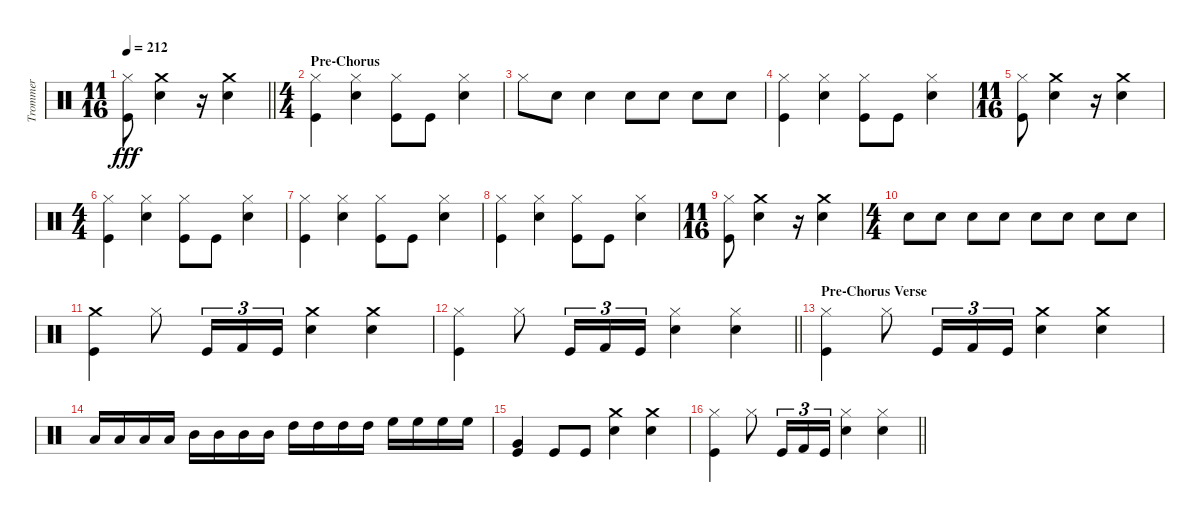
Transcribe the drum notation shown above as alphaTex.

\track ("Trommer" "Trommer") {instrument percussion}
\staff {score}
\articulation defaults
\ts (11 16)
\tempo 212
\clef neutral
\barLineRight lightlight
\ks c
("Kick (hit)" "Hi-Hat (closed)").8{dy fff} ("Crash medium (hit)" "Snare (hit) 2").4 r.16 ("Crash medium (hit)" "Snare (hit) 2").4 |
\ts (4 4)
\section ("" "Pre-Chorus")
("Kick (hit)" "Hi-Hat (closed)").4 ("Hi-Hat (closed)" "Snare (hit) 2").4 ("Kick (hit)" "Hi-Hat (closed)").8 "Kick (hit)".8 ("Snare (hit) 2" "Hi-Hat (closed)").4 |
"Hi-Hat (closed)".8 "Snare (hit) 2".8 "Snare (hit) 2".4 "Snare (hit) 2".8 "Snare (hit) 2".8 "Snare (hit) 2".8 "Snare (hit) 2".8 |
("Hi-Hat (closed)" "Kick (hit)").4 ("Snare (hit) 2" "Hi-Hat (closed)").4 ("Kick (hit)" "Hi-Hat (closed)").8 "Kick (hit)".8 ("Snare (hit) 2" "Hi-Hat (closed)").4 |
\ts (11 16)
("Kick (hit)" "Hi-Hat (closed)").8 ("Snare (hit) 2" "Crash medium (hit)").4 r.16 ("Crash medium (hit)" "Snare (hit) 2").4 |
\ts (4 4)
("Hi-Hat (closed)" "Kick (hit)").4 ("Snare (hit) 2" "Hi-Hat (closed)").4 ("Kick (hit)" "Hi-Hat (closed)").8 "Kick (hit)".8 ("Snare (hit) 2" "Hi-Hat (closed)").4 |
("Kick (hit)" "Hi-Hat (closed)").4 ("Snare (hit) 2" "Hi-Hat (closed)").4 ("Hi-Hat (closed)" "Kick (hit)").8 "Kick (hit)".8 ("Snare (hit) 2" "Hi-Hat (closed)").4 |
("Kick (hit)" "Hi-Hat (closed)").4 ("Snare (hit) 2" "Hi-Hat (closed)").4 ("Kick (hit)" "Hi-Hat (closed)").8 "Kick (hit)".8 ("Hi-Hat (closed)" "Snare (hit) 2").4 |
\ts (11 16)
("Kick (hit)" "Hi-Hat (closed)").8 ("Crash medium (hit)" "Snare (hit) 2").4 r.16 ("Crash medium (hit)" "Snare (hit) 2").4 |
\ts (4 4)
"Snare (hit) 2".8 "Snare (hit) 2".8 "Snare (hit) 2".8 "Snare (hit) 2".8 "Snare (hit) 2".8 "Snare (hit) 2".8 "Snare (hit) 2".8 "Snare (hit) 2".8 |
("Crash medium (hit)" "Kick (hit)").4 "Hi-Hat (closed)".8 "Kick (hit)".16{tu (3 2)} "Kick (hit) 2".16{tu (3 2)} "Kick (hit)".16{tu (3 2)} ("Crash medium (hit)" "Snare (hit) 2").4 ("Crash medium (hit)" "Snare (hit) 2").4 |
\barLineRight lightlight
("Hi-Hat (closed)" "Kick (hit)").4 "Hi-Hat (closed)".8 "Kick (hit)".16{tu (3 2)} "Kick (hit) 2".16{tu (3 2)} "Kick (hit)".16{tu (3 2)} ("Snare (hit) 2" "Hi-Hat (closed)").4 ("Snare (hit) 2" "Hi-Hat (closed)").4 |
\section ("" "Pre-Chorus Verse")
("Kick (hit)" "Hi-Hat (closed)").4 "Hi-Hat (closed)".8 "Kick (hit)".16{tu (3 2)} "Kick (hit) 2".16{tu (3 2)} "Kick (hit)".16{tu (3 2)} ("Crash medium (hit)" "Snare (hit) 2").4 ("Crash medium (hit)" "Snare (hit) 2").4 |
"Low Tom (hit)".16 "Low Tom (hit)".16 "Low Tom (hit)".16 "Low Tom (hit)".16 "Mid Tom (hit)".16 "Mid Tom (hit)".16 "Mid Tom (hit)".16 "Mid Tom (hit)".16 "High Tom (hit)".16 "High Tom (hit)".16 "High Tom (hit)".16 "High Tom (hit)".16 "High Floor Tom (hit)".16 "High Floor Tom (hit)".16 "High Floor Tom (hit)".16 "High Floor Tom (hit)".16 |
("Kick (hit)" "Very Low Tom (hit)").4 "Kick (hit)".8 "Kick (hit)".8 ("Snare (hit) 2" "Crash medium (hit)").4 ("Crash medium (hit)" "Snare (hit) 2").4 |
\barLineRight lightlight
("Kick (hit)" "Hi-Hat (closed)").4 "Hi-Hat (closed)".8 "Kick (hit)".16{tu (3 2)} "Kick (hit) 2".16{tu (3 2)} "Kick (hit)".16{tu (3 2)} ("Snare (hit) 2" "Hi-Hat (closed)").4 ("Hi-Hat (closed)" "Snare (hit) 2").4
